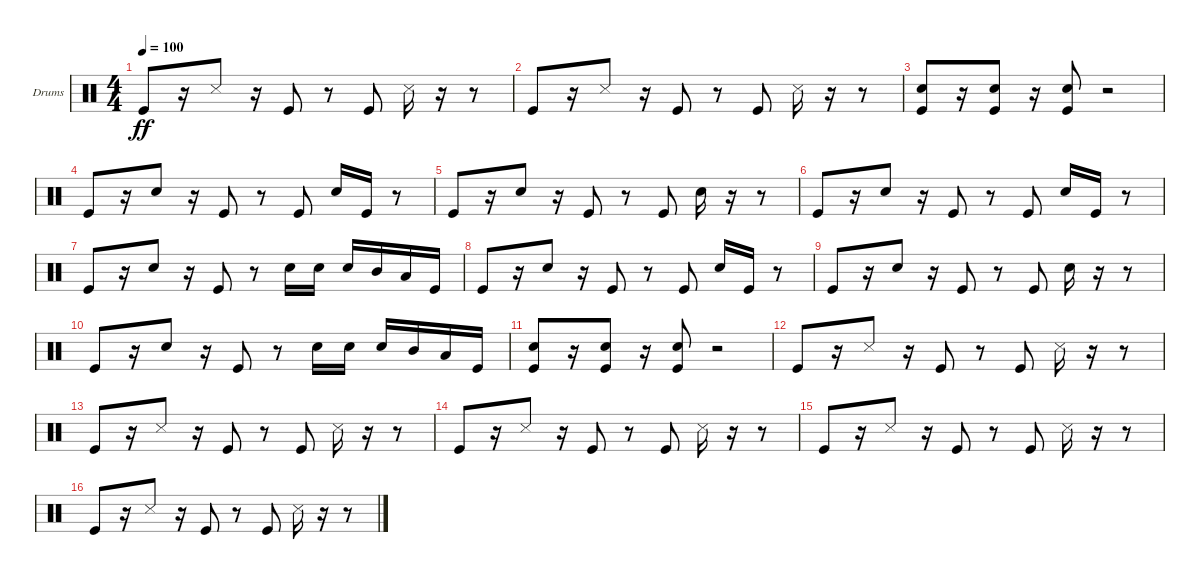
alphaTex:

\defaultSystemsLayout 4
\bracketExtendMode groupsimilarinstruments
\firstSystemTrackNameOrientation horizontal
\otherSystemsTrackNameOrientation horizontal
\track ("Drumkit 1" "Drums") {instrument percussion}
\staff {score}
\articulation defaults
\ts (4 4)
\tempo 100
\clef neutral
\ks c "Kick (hit)".8{dy ff}
r.16 "Snare (side stick) 3".8 r.16 "Kick (hit)".8 r.8 "Kick (hit)".8 "Snare (side stick) 3".16 r.16 r.8 |
"Kick (hit)".8 r.16 "Snare (side stick) 3".8 r.16 "Kick (hit)".8 r.8 "Kick (hit)".8 "Snare (side stick) 3".16 r.16 r.8 |
("Kick (hit)" "Snare (hit) 2").8 r.16 ("Kick (hit)" "Snare (hit) 2").8 r.16 ("Kick (hit)" "Snare (hit) 2").8 r.2 |
"Kick (hit)".8 r.16 "Snare (hit) 2".8 r.16 "Kick (hit)".8 r.8 "Kick (hit)".8 "Snare (hit) 2".16 "Kick (hit)".16 r.8 |
"Kick (hit)".8 r.16 "Snare (hit) 2".8 r.16 "Kick (hit)".8 r.8 "Kick (hit)".8 "Snare (hit) 2".16 r.16 r.8 |
"Kick (hit)".8 r.16 "Snare (hit) 2".8 r.16 "Kick (hit)".8 r.8 "Kick (hit)".8 "Snare (hit) 2".16 "Kick (hit)".16 r.8 |
"Kick (hit)".8 r.16 "Snare (hit) 2".8 r.16 "Kick (hit)".8 r.8 "Snare (hit) 2".16 "Snare (hit) 2".16 "Snare (hit) 2".16 "Mid Tom (hit)".16 "Low Tom (hit)".16 "Kick (hit)".16 |
"Kick (hit)".8 r.16 "Snare (hit) 2".8 r.16 "Kick (hit)".8 r.8 "Kick (hit)".8 "Snare (hit) 2".16 "Kick (hit)".16 r.8 |
"Kick (hit)".8 r.16 "Snare (hit) 2".8 r.16 "Kick (hit)".8 r.8 "Kick (hit)".8 "Snare (hit) 2".16 r.16 r.8 |
"Kick (hit)".8 r.16 "Snare (hit) 2".8 r.16 "Kick (hit)".8 r.8 "Snare (hit) 2".16 "Snare (hit) 2".16 "Snare (hit) 2".16 "Mid Tom (hit)".16 "Low Tom (hit)".16 "Kick (hit)".16 |
("Kick (hit)" "Snare (hit) 2").8 r.16 ("Kick (hit)" "Snare (hit) 2").8 r.16 ("Kick (hit)" "Snare (hit) 2").8 r.2 |
"Kick (hit)".8 r.16 "Snare (side stick) 3".8 r.16 "Kick (hit)".8 r.8 "Kick (hit)".8 "Snare (side stick) 3".16 r.16 r.8 |
"Kick (hit)".8 r.16 "Snare (side stick) 3".8 r.16 "Kick (hit)".8 r.8 "Kick (hit)".8 "Snare (side stick) 3".16 r.16 r.8 |
"Kick (hit)".8 r.16 "Snare (side stick) 3".8 r.16 "Kick (hit)".8 r.8 "Kick (hit)".8 "Snare (side stick) 3".16 r.16 r.8 |
"Kick (hit)".8 r.16 "Snare (side stick) 3".8 r.16 "Kick (hit)".8 r.8 "Kick (hit)".8 "Snare (side stick) 3".16 r.16 r.8 |
"Kick (hit)".8 r.16 "Snare (side stick) 3".8 r.16 "Kick (hit)".8 r.8 "Kick (hit)".8 "Snare (side stick) 3".16 r.16 r.8
